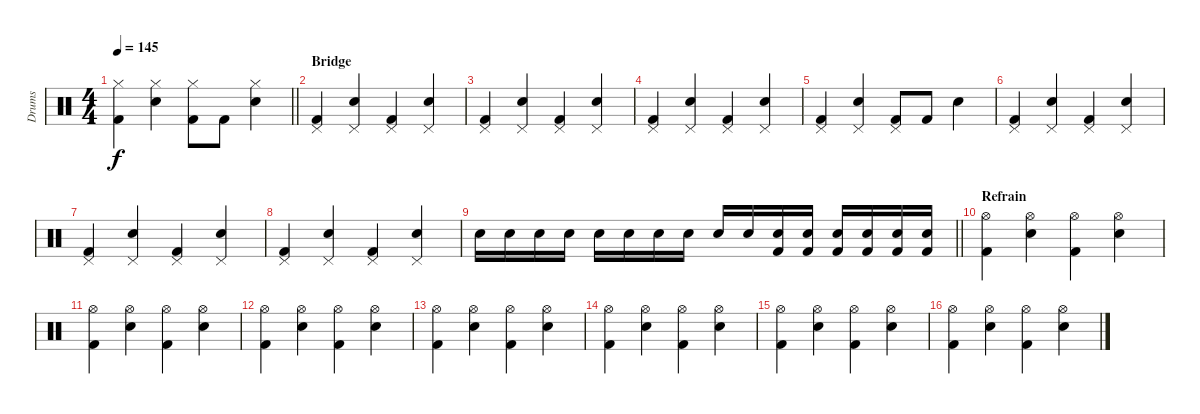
\track ("Drums" "Drums") {instrument percussion}
\staff {score}
\articulation defaults
\ts (4 4)
\tempo 145
\clef neutral
\barLineRight lightlight
\ks c
("Kick (hit) 2" "Hi-Hat (closed)").4{dy f} ("Electric Snare (hit)" "Hi-Hat (closed)").4 ("Kick (hit) 2" "Hi-Hat (closed)").8 "Kick (hit) 2".8 ("Electric Snare (hit)" "Hi-Hat (closed)").4 |
\section ("" "Bridge")
("Kick (hit) 2" "Pedal Hi-Hat (hit)").4 ("Electric Snare (hit)" "Pedal Hi-Hat (hit)").4 ("Kick (hit) 2" "Pedal Hi-Hat (hit)").4 ("Electric Snare (hit)" "Pedal Hi-Hat (hit)").4 |
("Kick (hit) 2" "Pedal Hi-Hat (hit)").4 ("Electric Snare (hit)" "Pedal Hi-Hat (hit)").4 ("Kick (hit) 2" "Pedal Hi-Hat (hit)").4 ("Electric Snare (hit)" "Pedal Hi-Hat (hit)").4 |
("Kick (hit) 2" "Pedal Hi-Hat (hit)").4 ("Electric Snare (hit)" "Pedal Hi-Hat (hit)").4 ("Kick (hit) 2" "Pedal Hi-Hat (hit)").4 ("Electric Snare (hit)" "Pedal Hi-Hat (hit)").4 |
("Kick (hit) 2" "Pedal Hi-Hat (hit)").4 ("Electric Snare (hit)" "Pedal Hi-Hat (hit)").4 ("Kick (hit) 2" "Pedal Hi-Hat (hit)").8 "Kick (hit) 2".8 "Electric Snare (hit)".4 |
("Kick (hit) 2" "Pedal Hi-Hat (hit)").4 ("Electric Snare (hit)" "Pedal Hi-Hat (hit)").4 ("Kick (hit) 2" "Pedal Hi-Hat (hit)").4 ("Electric Snare (hit)" "Pedal Hi-Hat (hit)").4 |
("Kick (hit) 2" "Pedal Hi-Hat (hit)").4 ("Electric Snare (hit)" "Pedal Hi-Hat (hit)").4 ("Kick (hit) 2" "Pedal Hi-Hat (hit)").4 ("Electric Snare (hit)" "Pedal Hi-Hat (hit)").4 |
("Kick (hit) 2" "Pedal Hi-Hat (hit)").4 ("Electric Snare (hit)" "Pedal Hi-Hat (hit)").4 ("Kick (hit) 2" "Pedal Hi-Hat (hit)").4 ("Electric Snare (hit)" "Pedal Hi-Hat (hit)").4 |
\barLineRight lightlight "Electric Snare (hit)".16 "Electric Snare (hit)".16 "Electric Snare (hit)".16 "Electric Snare (hit)".16 "Electric Snare (hit)".16 "Electric Snare (hit)".16 "Electric Snare (hit)".16 "Electric Snare (hit)".16 "Electric Snare (hit)".16 "Electric Snare (hit)".16
("Electric Snare (hit)" "Kick (hit) 2").16 ("Electric Snare (hit)" "Kick (hit) 2").16 ("Electric Snare (hit)" "Kick (hit) 2").16 ("Electric Snare (hit)" "Kick (hit) 2").16 ("Electric Snare (hit)" "Kick (hit) 2").16 ("Electric Snare (hit)" "Kick (hit) 2").16 |
\section ("" "Refrain")
("Kick (hit) 2" "Hi-Hat (open)").4 ("Electric Snare (hit)" "Hi-Hat (open)").4 ("Kick (hit) 2" "Hi-Hat (open)").4 ("Electric Snare (hit)" "Hi-Hat (open)").4 |
("Kick (hit) 2" "Hi-Hat (open)").4 ("Electric Snare (hit)" "Hi-Hat (open)").4 ("Kick (hit) 2" "Hi-Hat (open)").4 ("Electric Snare (hit)" "Hi-Hat (open)").4 |
("Kick (hit) 2" "Hi-Hat (open)").4 ("Electric Snare (hit)" "Hi-Hat (open)").4 ("Kick (hit) 2" "Hi-Hat (open)").4 ("Electric Snare (hit)" "Hi-Hat (open)").4 |
("Kick (hit) 2" "Hi-Hat (open)").4 ("Electric Snare (hit)" "Hi-Hat (open)").4 ("Kick (hit) 2" "Hi-Hat (open)").4 ("Electric Snare (hit)" "Hi-Hat (open)").4 |
("Kick (hit) 2" "Hi-Hat (open)").4 ("Electric Snare (hit)" "Hi-Hat (open)").4 ("Kick (hit) 2" "Hi-Hat (open)").4 ("Electric Snare (hit)" "Hi-Hat (open)").4 |
("Kick (hit) 2" "Hi-Hat (open)").4 ("Electric Snare (hit)" "Hi-Hat (open)").4 ("Kick (hit) 2" "Hi-Hat (open)").4 ("Electric Snare (hit)" "Hi-Hat (open)").4 |
("Kick (hit) 2" "Hi-Hat (open)").4 ("Electric Snare (hit)" "Hi-Hat (open)").4 ("Kick (hit) 2" "Hi-Hat (open)").4 ("Electric Snare (hit)" "Hi-Hat (open)").4
